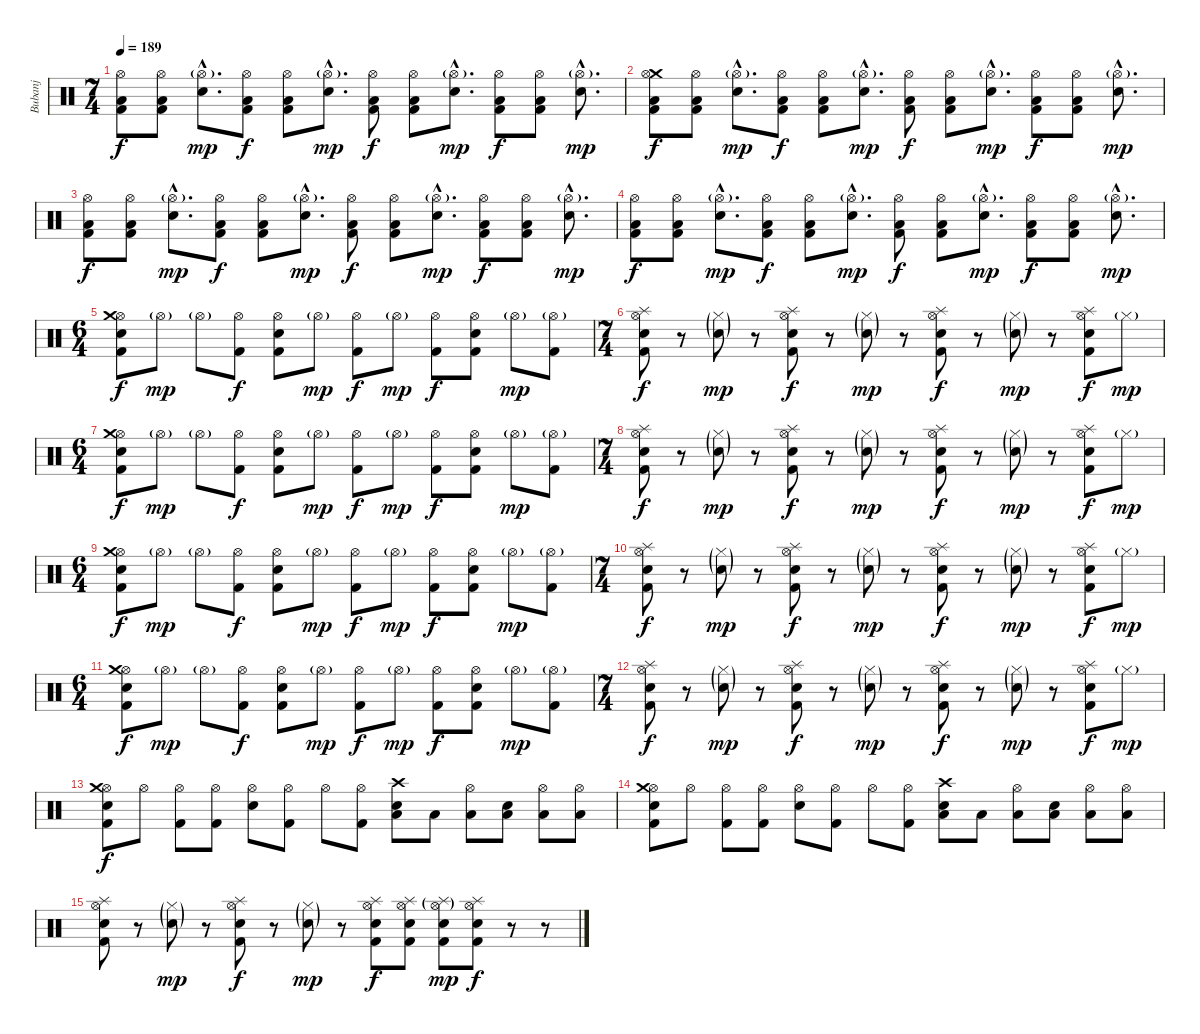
\track ("Bubanj" "Bubanj") {instrument percussion}
\staff {score}
\articulation defaults
\ts (7 4)
\tempo 189
\clef neutral
\ks c
("Hi-Hat (open)" "Kick (hit) 2" "Low Tom (hit)").8{dy f} ("Hi-Hat (open)" "Kick (hit) 2" "Low Tom (hit)").8 ("Hi-Hat (open)"{g hac} "Electric Snare (hit)"{hac}).8{d dy mp} ("Hi-Hat (open)" "Kick (hit) 2" "Low Tom (hit)").8{dy f} ("Hi-Hat (open)" "Kick (hit) 2" "Low Tom (hit)").8 ("Hi-Hat (open)"{g hac} "Electric Snare (hit)"{hac}).8{d dy mp} ("Hi-Hat (open)" "Low Tom (hit)" "Kick (hit) 2").8{dy f} ("Hi-Hat (open)" "Low Tom (hit)" "Kick (hit) 2").8 ("Hi-Hat (open)"{g hac} "Electric Snare (hit)"{hac}).8{d dy mp} ("Hi-Hat (open)" "Low Tom (hit)" "Kick (hit) 2").8{dy f} ("Hi-Hat (open)" "Low Tom (hit)" "Kick (hit) 2").8 ("Hi-Hat (open)"{g hac} "Electric Snare (hit)"{hac}).8{d dy mp} |
("Crash medium (hit)" "Hi-Hat (open)" "Kick (hit) 2" "Low Tom (hit)").8{dy f} ("Hi-Hat (open)" "Kick (hit) 2" "Low Tom (hit)").8 ("Hi-Hat (open)"{g hac} "Electric Snare (hit)"{hac}).8{d dy mp} ("Hi-Hat (open)" "Kick (hit) 2" "Low Tom (hit)").8{dy f} ("Hi-Hat (open)" "Kick (hit) 2" "Low Tom (hit)").8 ("Hi-Hat (open)"{g hac} "Electric Snare (hit)"{hac}).8{d dy mp} ("Hi-Hat (open)" "Low Tom (hit)" "Kick (hit) 2").8{dy f} ("Hi-Hat (open)" "Low Tom (hit)" "Kick (hit) 2").8 ("Hi-Hat (open)"{g hac} "Electric Snare (hit)"{hac}).8{d dy mp} ("Hi-Hat (open)" "Low Tom (hit)" "Kick (hit) 2").8{dy f} ("Hi-Hat (open)" "Low Tom (hit)" "Kick (hit) 2").8 ("Hi-Hat (open)"{g hac} "Electric Snare (hit)"{hac}).8{d dy mp} |
("Hi-Hat (open)" "Kick (hit) 2" "Low Tom (hit)").8{dy f} ("Hi-Hat (open)" "Kick (hit) 2" "Low Tom (hit)").8 ("Hi-Hat (open)"{g hac} "Electric Snare (hit)"{hac}).8{d dy mp} ("Hi-Hat (open)" "Kick (hit) 2" "Low Tom (hit)").8{dy f} ("Hi-Hat (open)" "Kick (hit) 2" "Low Tom (hit)").8 ("Hi-Hat (open)"{g hac} "Electric Snare (hit)"{hac}).8{d dy mp} ("Hi-Hat (open)" "Low Tom (hit)" "Kick (hit) 2").8{dy f} ("Hi-Hat (open)" "Low Tom (hit)" "Kick (hit) 2").8 ("Hi-Hat (open)"{g hac} "Electric Snare (hit)"{hac}).8{d dy mp} ("Hi-Hat (open)" "Low Tom (hit)" "Kick (hit) 2").8{dy f} ("Hi-Hat (open)" "Low Tom (hit)" "Kick (hit) 2").8 ("Hi-Hat (open)"{g hac} "Electric Snare (hit)"{hac}).8{d dy mp} |
("Hi-Hat (open)" "Kick (hit) 2" "Low Tom (hit)").8{dy f} ("Hi-Hat (open)" "Kick (hit) 2" "Low Tom (hit)").8 ("Hi-Hat (open)"{g hac} "Electric Snare (hit)"{hac}).8{d dy mp} ("Hi-Hat (open)" "Kick (hit) 2" "Low Tom (hit)").8{dy f} ("Hi-Hat (open)" "Kick (hit) 2" "Low Tom (hit)").8 ("Hi-Hat (open)"{g hac} "Electric Snare (hit)"{hac}).8{d dy mp} ("Hi-Hat (open)" "Low Tom (hit)" "Kick (hit) 2").8{dy f} ("Hi-Hat (open)" "Low Tom (hit)" "Kick (hit) 2").8 ("Hi-Hat (open)"{g hac} "Electric Snare (hit)"{hac}).8{d dy mp} ("Hi-Hat (open)" "Low Tom (hit)" "Kick (hit) 2").8{dy f} ("Hi-Hat (open)" "Low Tom (hit)" "Kick (hit) 2").8 ("Hi-Hat (open)"{g hac} "Electric Snare (hit)"{hac}).8{d dy mp} |
\ts (6 4)
("Hi-Hat (open)" "Crash medium (hit)" "Kick (hit) 2" "Electric Snare (hit)").8{dy f} "Hi-Hat (open)"{g}.8{dy mp} "Hi-Hat (open)"{g}.8 ("Hi-Hat (open)" "Kick (hit) 2").8{dy f} ("Hi-Hat (open)" "Kick (hit) 2" "Electric Snare (hit)").8 "Hi-Hat (open)"{g}.8{dy mp} ("Hi-Hat (open)" "Kick (hit) 2").8{dy f} "Hi-Hat (open)"{g}.8{dy mp} ("Hi-Hat (open)" "Kick (hit) 2").8{dy f} ("Hi-Hat (open)" "Kick (hit) 2" "Electric Snare (hit)").8 "Hi-Hat (open)"{g}.8{dy mp} ("Hi-Hat (open)"{g} "Kick (hit) 2").8 |
\ts (7 4)
("Splash (hit)" "Kick (hit) 2" "Hi-Hat (open)" "Electric Snare (hit)").8{dy f} r.8 ("Electric Snare (hit)"{g} "Hi-Hat (closed)"{g}).8{dy mp} r.8 ("Splash (hit)" "Kick (hit) 2" "Hi-Hat (open)" "Electric Snare (hit)").8{dy f} r.8 ("Electric Snare (hit)"{g} "Hi-Hat (closed)"{g}).8{dy mp} r.8 ("Splash (hit)" "Kick (hit) 2" "Hi-Hat (open)" "Electric Snare (hit)").8{dy f} r.8 ("Electric Snare (hit)"{g} "Hi-Hat (closed)"{g}).8{dy mp} r.8 ("Splash (hit)" "Kick (hit) 2" "Hi-Hat (open)" "Electric Snare (hit)").8{dy f} "Hi-Hat (closed)"{g}.8{dy mp} |
\ts (6 4)
("Hi-Hat (open)" "Crash medium (hit)" "Kick (hit) 2" "Electric Snare (hit)").8{dy f} "Hi-Hat (open)"{g}.8{dy mp} "Hi-Hat (open)"{g}.8 ("Hi-Hat (open)" "Kick (hit) 2").8{dy f} ("Hi-Hat (open)" "Kick (hit) 2" "Electric Snare (hit)").8 "Hi-Hat (open)"{g}.8{dy mp} ("Hi-Hat (open)" "Kick (hit) 2").8{dy f} "Hi-Hat (open)"{g}.8{dy mp} ("Hi-Hat (open)" "Kick (hit) 2").8{dy f} ("Hi-Hat (open)" "Kick (hit) 2" "Electric Snare (hit)").8 "Hi-Hat (open)"{g}.8{dy mp} ("Hi-Hat (open)"{g} "Kick (hit) 2").8 |
\ts (7 4)
("Splash (hit)" "Kick (hit) 2" "Hi-Hat (open)" "Electric Snare (hit)").8{dy f} r.8 ("Electric Snare (hit)"{g} "Hi-Hat (closed)"{g}).8{dy mp} r.8 ("Splash (hit)" "Kick (hit) 2" "Hi-Hat (open)" "Electric Snare (hit)").8{dy f} r.8 ("Electric Snare (hit)"{g} "Hi-Hat (closed)"{g}).8{dy mp} r.8 ("Splash (hit)" "Kick (hit) 2" "Hi-Hat (open)" "Electric Snare (hit)").8{dy f} r.8 ("Electric Snare (hit)"{g} "Hi-Hat (closed)"{g}).8{dy mp} r.8 ("Splash (hit)" "Kick (hit) 2" "Hi-Hat (open)" "Electric Snare (hit)").8{dy f} "Hi-Hat (closed)"{g}.8{dy mp} |
\ts (6 4)
("Hi-Hat (open)" "Crash medium (hit)" "Kick (hit) 2" "Electric Snare (hit)").8{dy f} "Hi-Hat (open)"{g}.8{dy mp} "Hi-Hat (open)"{g}.8 ("Hi-Hat (open)" "Kick (hit) 2").8{dy f} ("Hi-Hat (open)" "Kick (hit) 2" "Electric Snare (hit)").8 "Hi-Hat (open)"{g}.8{dy mp} ("Hi-Hat (open)" "Kick (hit) 2").8{dy f} "Hi-Hat (open)"{g}.8{dy mp} ("Hi-Hat (open)" "Kick (hit) 2").8{dy f} ("Hi-Hat (open)" "Kick (hit) 2" "Electric Snare (hit)").8 "Hi-Hat (open)"{g}.8{dy mp} ("Hi-Hat (open)"{g} "Kick (hit) 2").8 |
\ts (7 4)
("Splash (hit)" "Kick (hit) 2" "Hi-Hat (open)" "Electric Snare (hit)").8{dy f} r.8 ("Electric Snare (hit)"{g} "Hi-Hat (closed)"{g}).8{dy mp} r.8 ("Splash (hit)" "Kick (hit) 2" "Hi-Hat (open)" "Electric Snare (hit)").8{dy f} r.8 ("Electric Snare (hit)"{g} "Hi-Hat (closed)"{g}).8{dy mp} r.8 ("Splash (hit)" "Kick (hit) 2" "Hi-Hat (open)" "Electric Snare (hit)").8{dy f} r.8 ("Electric Snare (hit)"{g} "Hi-Hat (closed)"{g}).8{dy mp} r.8 ("Splash (hit)" "Kick (hit) 2" "Hi-Hat (open)" "Electric Snare (hit)").8{dy f} "Hi-Hat (closed)"{g}.8{dy mp} |
\ts (6 4)
("Hi-Hat (open)" "Crash medium (hit)" "Kick (hit) 2" "Electric Snare (hit)").8{dy f} "Hi-Hat (open)"{g}.8{dy mp} "Hi-Hat (open)"{g}.8 ("Hi-Hat (open)" "Kick (hit) 2").8{dy f} ("Hi-Hat (open)" "Kick (hit) 2" "Electric Snare (hit)").8 "Hi-Hat (open)"{g}.8{dy mp} ("Hi-Hat (open)" "Kick (hit) 2").8{dy f} "Hi-Hat (open)"{g}.8{dy mp} ("Hi-Hat (open)" "Kick (hit) 2").8{dy f} ("Hi-Hat (open)" "Kick (hit) 2" "Electric Snare (hit)").8 "Hi-Hat (open)"{g}.8{dy mp} ("Hi-Hat (open)"{g} "Kick (hit) 2").8 |
\ts (7 4)
("Splash (hit)" "Kick (hit) 2" "Hi-Hat (open)" "Electric Snare (hit)").8{dy f} r.8 ("Electric Snare (hit)"{g} "Hi-Hat (closed)"{g}).8{dy mp} r.8 ("Splash (hit)" "Kick (hit) 2" "Hi-Hat (open)" "Electric Snare (hit)").8{dy f} r.8 ("Electric Snare (hit)"{g} "Hi-Hat (closed)"{g}).8{dy mp} r.8 ("Splash (hit)" "Kick (hit) 2" "Hi-Hat (open)" "Electric Snare (hit)").8{dy f} r.8 ("Electric Snare (hit)"{g} "Hi-Hat (closed)"{g}).8{dy mp} r.8 ("Splash (hit)" "Kick (hit) 2" "Hi-Hat (open)" "Electric Snare (hit)").8{dy f} "Hi-Hat (closed)"{g}.8{dy mp} |
("Hi-Hat (open)" "Crash medium (hit)" "Kick (hit) 2" "Electric Snare (hit)").8{dy f} "Hi-Hat (open)".8 ("Hi-Hat (open)" "Kick (hit) 2").8 ("Hi-Hat (open)" "Kick (hit) 2").8 ("Hi-Hat (open)" "Electric Snare (hit)").8 ("Hi-Hat (open)" "Kick (hit) 2").8 "Hi-Hat (open)".8 ("Hi-Hat (open)" "Kick (hit) 2").8 ("Low Tom (hit)" "Crash high (hit)" "Electric Snare (hit)").8 "Low Tom (hit)".8 ("Low Tom (hit)" "Hi-Hat (open)").8 ("Low Floor Tom (hit)" "Electric Snare (hit)").8 ("Low Floor Tom (hit)" "Hi-Hat (open)").8 ("Low Floor Tom (hit)" "Hi-Hat (open)").8 |
("Hi-Hat (open)" "Crash medium (hit)" "Kick (hit) 2" "Electric Snare (hit)").8 "Hi-Hat (open)".8 ("Hi-Hat (open)" "Kick (hit) 2").8 ("Hi-Hat (open)" "Kick (hit) 2").8 ("Hi-Hat (open)" "Electric Snare (hit)").8 ("Hi-Hat (open)" "Kick (hit) 2").8 "Hi-Hat (open)".8 ("Hi-Hat (open)" "Kick (hit) 2").8 ("Low Tom (hit)" "Crash high (hit)" "Electric Snare (hit)").8 "Low Tom (hit)".8 ("Low Tom (hit)" "Hi-Hat (open)").8 ("Low Floor Tom (hit)" "Electric Snare (hit)").8 ("Low Floor Tom (hit)" "Hi-Hat (open)").8 ("Low Floor Tom (hit)" "Hi-Hat (open)").8 |
("Splash (hit)" "Kick (hit) 2" "Hi-Hat (open)" "Electric Snare (hit)").8 r.8 ("Electric Snare (hit)"{g} "Hi-Hat (closed)"{g}).8{dy mp} r.8 ("Splash (hit)" "Kick (hit) 2" "Hi-Hat (open)" "Electric Snare (hit)").8{dy f} r.8 ("Electric Snare (hit)"{g} "Hi-Hat (closed)"{g}).8{dy mp} r.8 ("Splash (hit)" "Kick (hit) 2" "Hi-Hat (open)" "Electric Snare (hit)").8{dy f} ("Splash (hit)" "Kick (hit) 2" "Hi-Hat (open)" "Electric Snare (hit)").8 ("Splash (hit)"{g} "Kick (hit) 2" "Hi-Hat (open)"{g} "Electric Snare (hit)").8{dy mp} ("Splash (hit)" "Kick (hit) 2" "Hi-Hat (open)" "Electric Snare (hit)").8{dy f} r.8 r.8
